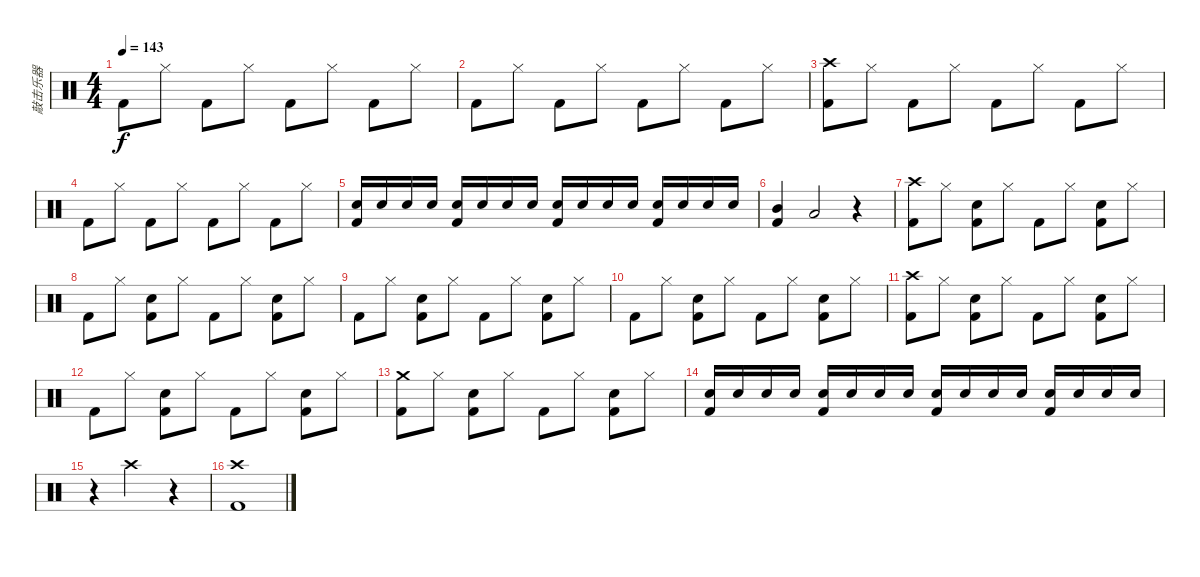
\track ("敲击乐器" "敲击乐器") {instrument percussion}
\staff {score}
\articulation defaults
\ts (4 4)
\tempo 143
\clef neutral
\ks c "Kick (hit) 2".8{dy f} "Hi-Hat (closed)".8 "Kick (hit) 2".8 "Hi-Hat (closed)".8 "Kick (hit) 2".8 "Hi-Hat (closed)".8 "Kick (hit) 2".8 "Hi-Hat (closed)".8
|
"Kick (hit) 2".8 "Hi-Hat (closed)".8 "Kick (hit) 2".8 "Hi-Hat (closed)".8 "Kick (hit) 2".8 "Hi-Hat (closed)".8 "Kick (hit) 2".8 "Hi-Hat (closed)".8 |
("Crash high (hit)" "Kick (hit) 2").8 "Hi-Hat (closed)".8 "Kick (hit) 2".8 "Hi-Hat (closed)".8 "Kick (hit) 2".8 "Hi-Hat (closed)".8 "Kick (hit) 2".8 "Hi-Hat (closed)".8 |
"Kick (hit) 2".8 "Hi-Hat (closed)".8 "Kick (hit) 2".8 "Hi-Hat (closed)".8 "Kick (hit) 2".8 "Hi-Hat (closed)".8 "Kick (hit) 2".8 "Hi-Hat (closed)".8 |
("Electric Snare (hit)" "Kick (hit) 2").16 "Electric Snare (hit)".16 "Electric Snare (hit)".16 "Electric Snare (hit)".16 ("Electric Snare (hit)" "Kick (hit) 2").16 "Electric Snare (hit)".16 "Electric Snare (hit)".16 "Electric Snare (hit)".16 ("Electric Snare (hit)" "Kick (hit) 2").16 "Electric Snare (hit)".16 "Electric Snare (hit)".16 "Electric Snare (hit)".16 ("Electric Snare (hit)" "Kick (hit) 2").16 "Electric Snare (hit)".16 "Electric Snare (hit)".16 "Electric Snare (hit)".16 |
("Mid Tom (hit)" "Kick (hit) 2").4 "Low Floor Tom (hit)".2 r.4 |
("Crash high (hit)" "Kick (hit) 2").8 "Hi-Hat (closed)".8 ("Electric Snare (hit)" "Kick (hit) 2").8 "Hi-Hat (closed)".8 "Kick (hit) 2".8 "Hi-Hat (closed)".8 ("Electric Snare (hit)" "Kick (hit) 2").8 "Hi-Hat (closed)".8 |
"Kick (hit) 2".8 "Hi-Hat (closed)".8 ("Electric Snare (hit)" "Kick (hit) 2").8 "Hi-Hat (closed)".8 "Kick (hit) 2".8 "Hi-Hat (closed)".8 ("Electric Snare (hit)" "Kick (hit) 2").8 "Hi-Hat (closed)".8 |
"Kick (hit) 2".8 "Hi-Hat (closed)".8 ("Electric Snare (hit)" "Kick (hit) 2").8 "Hi-Hat (closed)".8 "Kick (hit) 2".8 "Hi-Hat (closed)".8 ("Electric Snare (hit)" "Kick (hit) 2").8 "Hi-Hat (closed)".8 |
"Kick (hit) 2".8 "Hi-Hat (closed)".8 ("Electric Snare (hit)" "Kick (hit) 2").8 "Hi-Hat (closed)".8 "Kick (hit) 2".8 "Hi-Hat (closed)".8 ("Electric Snare (hit)" "Kick (hit) 2").8 "Hi-Hat (closed)".8 |
("Crash high (hit)" "Kick (hit) 2").8 "Hi-Hat (closed)".8 ("Electric Snare (hit)" "Kick (hit) 2").8 "Hi-Hat (closed)".8 "Kick (hit) 2".8 "Hi-Hat (closed)".8 ("Electric Snare (hit)" "Kick (hit) 2").8 "Hi-Hat (closed)".8 |
"Kick (hit) 2".8 "Hi-Hat (closed)".8 ("Electric Snare (hit)" "Kick (hit) 2").8 "Hi-Hat (closed)".8 "Kick (hit) 2".8 "Hi-Hat (closed)".8 ("Electric Snare (hit)" "Kick (hit) 2").8 "Hi-Hat (closed)".8 |
("Crash medium (hit)" "Kick (hit) 2").8 "Hi-Hat (closed)".8 ("Electric Snare (hit)" "Kick (hit) 2").8 "Hi-Hat (closed)".8 "Kick (hit) 2".8 "Hi-Hat (closed)".8 ("Electric Snare (hit)" "Kick (hit) 2").8 "Hi-Hat (closed)".8 |
("Electric Snare (hit)" "Kick (hit) 2").16 "Electric Snare (hit)".16 "Electric Snare (hit)".16 "Electric Snare (hit)".16 ("Electric Snare (hit)" "Kick (hit) 2").16 "Electric Snare (hit)".16 "Electric Snare (hit)".16 "Electric Snare (hit)".16 ("Electric Snare (hit)" "Kick (hit) 2").16 "Electric Snare (hit)".16 "Electric Snare (hit)".16 "Electric Snare (hit)".16 ("Electric Snare (hit)" "Kick (hit) 2").16 "Electric Snare (hit)".16 "Electric Snare (hit)".16 "Electric Snare (hit)".16 |
r.4{volume 0} "Crash high (hit)".2{volume 13} r.4 |
("Crash high (hit)" "Kick (hit) 2").1
